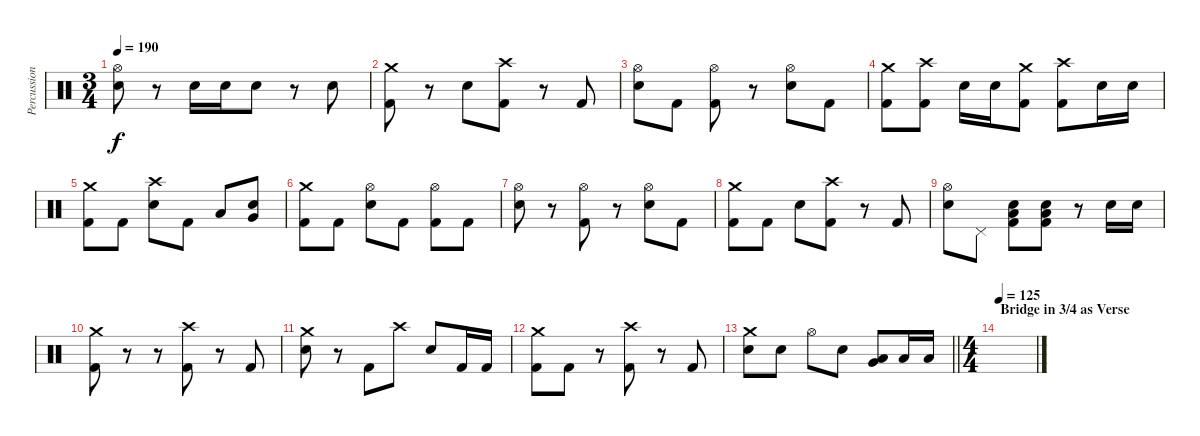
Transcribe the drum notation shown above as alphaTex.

\track ("Percussion" "Percussion") {instrument percussion}
\staff {score}
\articulation defaults
\ts (3 4)
\tempo 190
\clef neutral
\ks c
("Hi-Hat (open)" "Electric Snare (hit)").8{dy f} r.8 "Electric Snare (hit)".16 "Electric Snare (hit)".16 "Electric Snare (hit)".8 r.8 "Electric Snare (hit)".8 |
("Crash medium (hit)" "Kick (hit) 2").8 r.8 "Electric Snare (hit)".8 ("Crash high (hit)" "Kick (hit) 2").8 r.8 "Kick (hit) 2".8 |
("Hi-Hat (open)" "Electric Snare (hit)").8 "Kick (hit) 2".8 ("Hi-Hat (open)" "Kick (hit) 2").8 r.8 ("Hi-Hat (open)" "Electric Snare (hit)").8 "Kick (hit) 2".8 |
("Crash medium (hit)" "Kick (hit) 2").8 ("Crash high (hit)" "Kick (hit) 2").8 "Electric Snare (hit)".16 "Electric Snare (hit)".16 ("Crash medium (hit)" "Kick (hit) 2").8 ("Crash high (hit)" "Kick (hit) 2").8 "Electric Snare (hit)".16 "Electric Snare (hit)".16 |
("Crash medium (hit)" "Kick (hit) 2").8 "Kick (hit) 2".8 ("Crash high (hit)" "Electric Snare (hit)").8 "Kick (hit) 2".8 "Low Tom (hit)".8 ("Very Low Tom (hit)" "Electric Snare (hit)").8 |
("Crash medium (hit)" "Kick (hit) 2").8 "Kick (hit) 2".8 ("Hi-Hat (open)" "Electric Snare (hit)").8 "Kick (hit) 2".8 ("Hi-Hat (open)" "Kick (hit) 2").8 "Kick (hit) 2".8 |
("Hi-Hat (open)" "Electric Snare (hit)").8 r.8 ("Hi-Hat (open)" "Kick (hit) 2").8 r.8 ("Hi-Hat (open)" "Electric Snare (hit)").8 "Kick (hit) 2".8 |
("Crash medium (hit)" "Kick (hit) 2").8 "Kick (hit) 2".8 "Electric Snare (hit)".8 ("Crash high (hit)" "Kick (hit) 2").8 r.8 "Kick (hit) 2".8 |
("Hi-Hat (open)" "Electric Snare (hit)").8 "Pedal Hi-Hat (hit)".8 ("Low Floor Tom (hit)" "Electric Snare (hit)" "Kick (hit) 2").8 ("Low Floor Tom (hit)" "Electric Snare (hit)" "Kick (hit) 2").8 r.8 "Electric Snare (hit)".16 "Electric Snare (hit)".16 |
("Crash medium (hit)" "Kick (hit) 2").8 r.8 r.8 ("Crash high (hit)" "Kick (hit) 2").8 r.8 "Kick (hit) 2".8 |
("Crash medium (hit)" "Electric Snare (hit)").8 r.8 "Kick (hit) 2".8 "Crash high (hit)".8 "Electric Snare (hit)".8 "Kick (hit) 2".16 "Kick (hit) 2".16 |
("Crash medium (hit)" "Kick (hit) 2").8 "Kick (hit) 2".8 r.8 ("Crash high (hit)" "Kick (hit) 2").8 r.8 "Kick (hit) 2".8 |
\barLineRight lightlight
("Crash medium (hit)" "Electric Snare (hit)").8 "Electric Snare (hit)".8 "Hi-Hat (open)".8 "Electric Snare (hit)".8 ("Very Low Tom (hit)" "Low Tom (hit)").8 "Low Floor Tom (hit)".16 "Low Floor Tom (hit)".16 |
\ts (4 4)
\section ("" "Bridge in 3/4 as Verse")
\tempo 125
